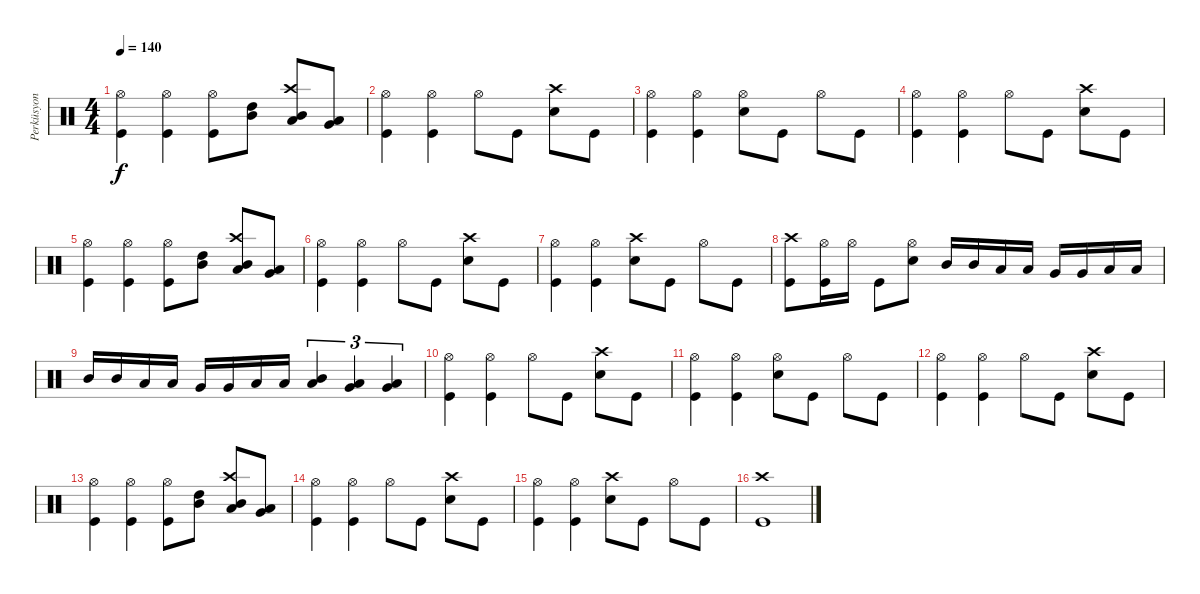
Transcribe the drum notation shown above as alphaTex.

\track ("Perküsyon" "Perküsyon") {instrument percussion}
\staff {score}
\articulation defaults
\ts (4 4)
\tempo 140
\clef neutral
\ks c
("Hi-Hat (open)" "Kick (hit)").4{dy f} ("Hi-Hat (open)" "Kick (hit)").4 ("Hi-Hat (open)" "Kick (hit)").8 ("Mid Tom (hit)" "High Tom (hit)").8 ("Crash high (hit)" "Low Tom (hit)" "Mid Tom (hit)").8 ("Very Low Tom (hit)" "Low Tom (hit)").8 |
("Hi-Hat (open)" "Kick (hit)").4 ("Hi-Hat (open)" "Kick (hit)").4 "Hi-Hat (open)".8 "Kick (hit)".8 ("Crash high (hit)" "Snare (hit) 2").8 "Kick (hit)".8 |
("Hi-Hat (open)" "Kick (hit)").4 ("Hi-Hat (open)" "Kick (hit)").4 ("Hi-Hat (open)" "Snare (hit) 2").8 "Kick (hit)".8 "Hi-Hat (open)".8 "Kick (hit)".8 |
("Hi-Hat (open)" "Kick (hit)").4 ("Hi-Hat (open)" "Kick (hit)").4 "Hi-Hat (open)".8 "Kick (hit)".8 ("Crash high (hit)" "Snare (hit) 2").8 "Kick (hit)".8 |
("Hi-Hat (open)" "Kick (hit)").4 ("Hi-Hat (open)" "Kick (hit)").4 ("Hi-Hat (open)" "Kick (hit)").8 ("Mid Tom (hit)" "High Tom (hit)").8 ("Crash high (hit)" "Low Tom (hit)" "Mid Tom (hit)").8 ("Very Low Tom (hit)" "Low Tom (hit)").8 |
("Hi-Hat (open)" "Kick (hit)").4 ("Hi-Hat (open)" "Kick (hit)").4 "Hi-Hat (open)".8 "Kick (hit)".8 ("Crash high (hit)" "Snare (hit) 2").8 "Kick (hit)".8 |
("Hi-Hat (open)" "Kick (hit)").4 ("Hi-Hat (open)" "Kick (hit)").4 ("Crash high (hit)" "Snare (hit) 2").8 "Kick (hit)".8 "Hi-Hat (open)".8 "Kick (hit)".8 |
("Crash high (hit)" "Kick (hit)").8 ("Hi-Hat (open)" "Kick (hit)").16 "Hi-Hat (open)".16 "Kick (hit)".8 ("Hi-Hat (open)" "Snare (hit) 2").8 "Mid Tom (hit)".16 "Mid Tom (hit)".16 "Low Tom (hit)".16 "Low Tom (hit)".16 "Very Low Tom (hit)".16 "Very Low Tom (hit)".16 "Low Floor Tom (hit)".16 "Low Floor Tom (hit)".16 |
"Mid Tom (hit)".16 "Mid Tom (hit)".16 "Low Tom (hit)".16 "Low Tom (hit)".16 "Very Low Tom (hit)".16 "Very Low Tom (hit)".16 "Low Floor Tom (hit)".16 "Low Floor Tom (hit)".16 ("Low Tom (hit)" "Mid Tom (hit)").4{tu (3 2)} ("Very Low Tom (hit)" "Low Tom (hit)").4{tu (3 2)} ("Low Floor Tom (hit)" "Very Low Tom (hit)").4{tu (3 2)} |
("Hi-Hat (open)" "Kick (hit)").4 ("Hi-Hat (open)" "Kick (hit)").4 "Hi-Hat (open)".8 "Kick (hit)".8 ("Crash high (hit)" "Snare (hit) 2").8 "Kick (hit)".8 |
("Hi-Hat (open)" "Kick (hit)").4 ("Hi-Hat (open)" "Kick (hit)").4 ("Hi-Hat (open)" "Snare (hit) 2").8 "Kick (hit)".8 "Hi-Hat (open)".8 "Kick (hit)".8 |
("Hi-Hat (open)" "Kick (hit)").4 ("Hi-Hat (open)" "Kick (hit)").4 "Hi-Hat (open)".8 "Kick (hit)".8 ("Crash high (hit)" "Snare (hit) 2").8 "Kick (hit)".8 |
("Hi-Hat (open)" "Kick (hit)").4 ("Hi-Hat (open)" "Kick (hit)").4 ("Hi-Hat (open)" "Kick (hit)").8 ("Mid Tom (hit)" "High Tom (hit)").8 ("Crash high (hit)" "Low Tom (hit)" "Mid Tom (hit)").8 ("Very Low Tom (hit)" "Low Tom (hit)").8 |
("Hi-Hat (open)" "Kick (hit)").4 ("Hi-Hat (open)" "Kick (hit)").4 "Hi-Hat (open)".8 "Kick (hit)".8 ("Crash high (hit)" "Snare (hit) 2").8 "Kick (hit)".8 |
("Hi-Hat (open)" "Kick (hit)").4 ("Hi-Hat (open)" "Kick (hit)").4 ("Crash high (hit)" "Snare (hit) 2").8 "Kick (hit)".8 "Hi-Hat (open)".8 "Kick (hit)".8 |
("Crash high (hit)" "Kick (hit)").1
